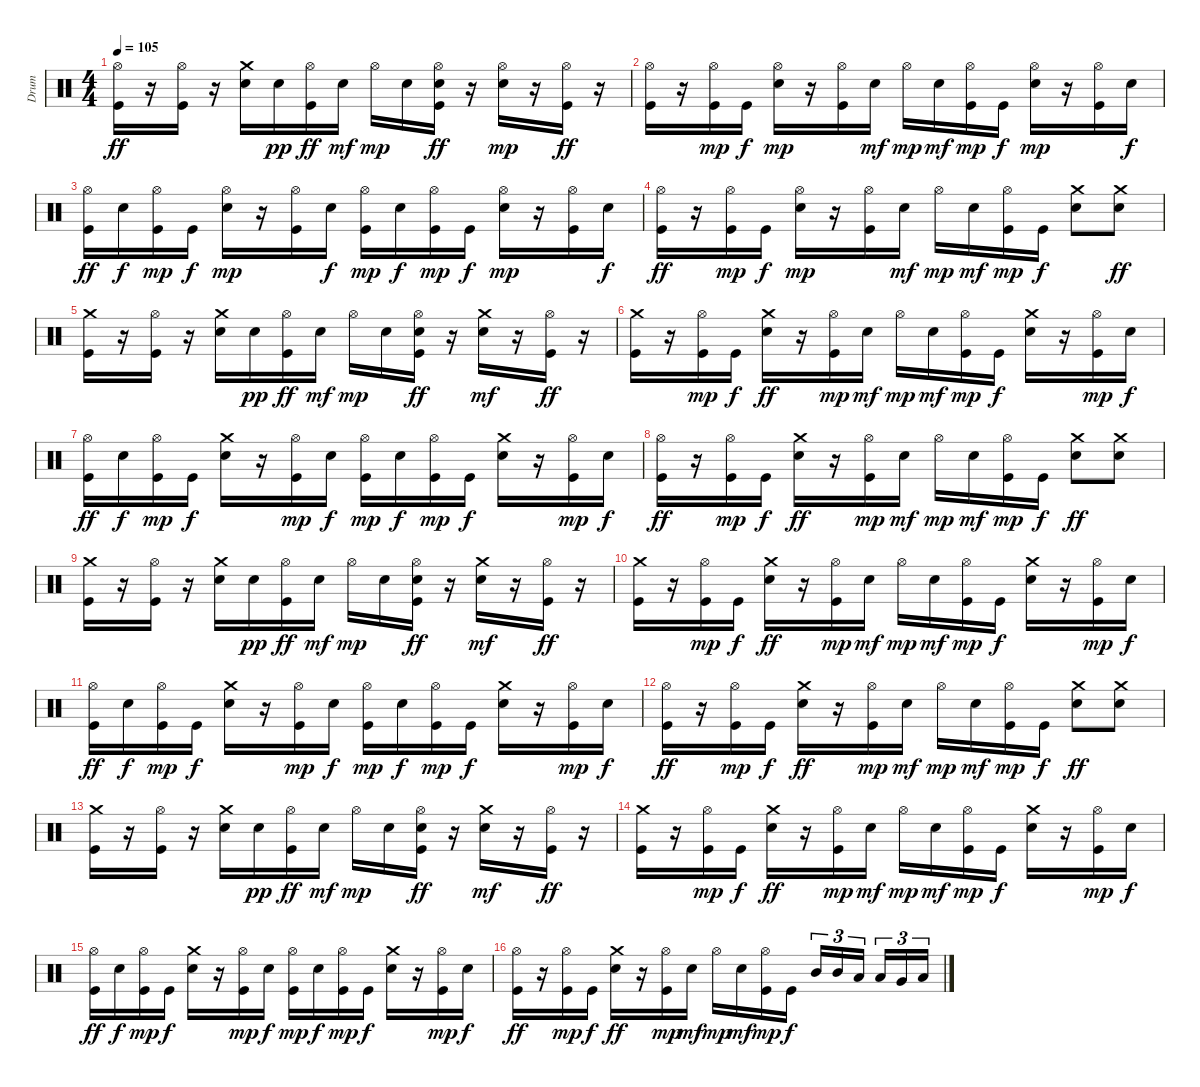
\track ("Drum" "Drum") {instrument percussion}
\staff {score}
\articulation defaults
\ts (4 4)
\tempo 105
\clef neutral
\ks c
("Hi-Hat (open)" "Kick (hit)").16{dy ff} r.16 ("Hi-Hat (open)" "Kick (hit)").16 r.16 ("Crash medium (hit)" "Electric Snare (hit)").16 "Electric Snare (hit)".16{dy pp} ("Hi-Hat (open)" "Kick (hit)").16{dy ff} "Electric Snare (hit)".16{dy mf} "Hi-Hat (open)".16{dy mp} "Electric Snare (hit)".16 ("Hi-Hat (open)" "Electric Snare (hit)" "Kick (hit)").16{dy ff} r.16 ("Hi-Hat (open)" "Electric Snare (hit)").16{dy mp} r.16 ("Hi-Hat (open)" "Kick (hit)").16{dy ff} r.16 |
("Hi-Hat (open)" "Kick (hit)").16 r.16 ("Hi-Hat (open)" "Kick (hit)").16{dy mp} "Kick (hit)".16{dy f} ("Hi-Hat (open)" "Electric Snare (hit)").16{dy mp} r.16 ("Hi-Hat (open)" "Kick (hit)").16 "Electric Snare (hit)".16{dy mf} "Hi-Hat (open)".16{dy mp} "Electric Snare (hit)".16{dy mf} ("Hi-Hat (open)" "Kick (hit)").16{dy mp} "Kick (hit)".16{dy f} ("Hi-Hat (open)" "Electric Snare (hit)").16{dy mp} r.16 ("Hi-Hat (open)" "Kick (hit)").16 "Electric Snare (hit)".16{dy f} |
("Hi-Hat (open)" "Kick (hit)").16{dy ff} "Electric Snare (hit)".16{dy f} ("Hi-Hat (open)" "Kick (hit)").16{dy mp} "Kick (hit)".16{dy f} ("Hi-Hat (open)" "Electric Snare (hit)").16{dy mp} r.16 ("Hi-Hat (open)" "Kick (hit)").16 "Electric Snare (hit)".16{dy f} ("Hi-Hat (open)" "Kick (hit)").16{dy mp} "Electric Snare (hit)".16{dy f} ("Hi-Hat (open)" "Kick (hit)").16{dy mp} "Kick (hit)".16{dy f} ("Hi-Hat (open)" "Electric Snare (hit)").16{dy mp} r.16 ("Hi-Hat (open)" "Kick (hit)").16 "Electric Snare (hit)".16{dy f} |
("Hi-Hat (open)" "Kick (hit)").16{dy ff} r.16 ("Hi-Hat (open)" "Kick (hit)").16{dy mp} "Kick (hit)".16{dy f} ("Hi-Hat (open)" "Electric Snare (hit)").16{dy mp} r.16 ("Hi-Hat (open)" "Kick (hit)").16 "Electric Snare (hit)".16{dy mf} "Hi-Hat (open)".16{dy mp} "Electric Snare (hit)".16{dy mf} ("Hi-Hat (open)" "Kick (hit)").16{dy mp} "Kick (hit)".16{dy f} ("Crash medium (hit)" "Electric Snare (hit)").8 ("Crash medium (hit)" "Electric Snare (hit)").8{dy ff} |
("Crash medium (hit)" "Kick (hit)").16 r.16 ("Hi-Hat (open)" "Kick (hit)").16 r.16 ("Crash medium (hit)" "Electric Snare (hit)").16 "Electric Snare (hit)".16{dy pp} ("Hi-Hat (open)" "Kick (hit)").16{dy ff} "Electric Snare (hit)".16{dy mf} "Hi-Hat (open)".16{dy mp} "Electric Snare (hit)".16 ("Hi-Hat (open)" "Electric Snare (hit)" "Kick (hit)").16{dy ff} r.16 ("Crash medium (hit)" "Electric Snare (hit)").16{dy mf} r.16 ("Hi-Hat (open)" "Kick (hit)").16{dy ff} r.16 |
("Crash medium (hit)" "Kick (hit)").16 r.16 ("Hi-Hat (open)" "Kick (hit)").16{dy mp} "Kick (hit)".16{dy f} ("Crash medium (hit)" "Electric Snare (hit)").16{dy ff} r.16 ("Hi-Hat (open)" "Kick (hit)").16{dy mp} "Electric Snare (hit)".16{dy mf} "Hi-Hat (open)".16{dy mp} "Electric Snare (hit)".16{dy mf} ("Hi-Hat (open)" "Kick (hit)").16{dy mp} "Kick (hit)".16{dy f} ("Crash medium (hit)" "Electric Snare (hit)").16 r.16 ("Hi-Hat (open)" "Kick (hit)").16{dy mp} "Electric Snare (hit)".16{dy f} |
("Hi-Hat (open)" "Kick (hit)").16{dy ff} "Electric Snare (hit)".16{dy f} ("Hi-Hat (open)" "Kick (hit)").16{dy mp} "Kick (hit)".16{dy f} ("Crash medium (hit)" "Electric Snare (hit)").16 r.16 ("Hi-Hat (open)" "Kick (hit)").16{dy mp} "Electric Snare (hit)".16{dy f} ("Hi-Hat (open)" "Kick (hit)").16{dy mp} "Electric Snare (hit)".16{dy f} ("Hi-Hat (open)" "Kick (hit)").16{dy mp} "Kick (hit)".16{dy f} ("Crash medium (hit)" "Electric Snare (hit)").16 r.16 ("Hi-Hat (open)" "Kick (hit)").16{dy mp} "Electric Snare (hit)".16{dy f} |
("Hi-Hat (open)" "Kick (hit)").16{dy ff} r.16 ("Hi-Hat (open)" "Kick (hit)").16{dy mp} "Kick (hit)".16{dy f} ("Crash medium (hit)" "Electric Snare (hit)").16{dy ff} r.16 ("Hi-Hat (open)" "Kick (hit)").16{dy mp} "Electric Snare (hit)".16{dy mf} "Hi-Hat (open)".16{dy mp} "Electric Snare (hit)".16{dy mf} ("Hi-Hat (open)" "Kick (hit)").16{dy mp} "Kick (hit)".16{dy f} ("Crash medium (hit)" "Electric Snare (hit)").8{dy ff} ("Crash medium (hit)" "Electric Snare (hit)").8 |
("Crash medium (hit)" "Kick (hit)").16 r.16 ("Hi-Hat (open)" "Kick (hit)").16 r.16 ("Crash medium (hit)" "Electric Snare (hit)").16 "Electric Snare (hit)".16{dy pp} ("Hi-Hat (open)" "Kick (hit)").16{dy ff} "Electric Snare (hit)".16{dy mf} "Hi-Hat (open)".16{dy mp} "Electric Snare (hit)".16 ("Hi-Hat (open)" "Electric Snare (hit)" "Kick (hit)").16{dy ff} r.16 ("Crash medium (hit)" "Electric Snare (hit)").16{dy mf} r.16 ("Hi-Hat (open)" "Kick (hit)").16{dy ff} r.16 |
("Crash medium (hit)" "Kick (hit)").16 r.16 ("Hi-Hat (open)" "Kick (hit)").16{dy mp} "Kick (hit)".16{dy f} ("Crash medium (hit)" "Electric Snare (hit)").16{dy ff} r.16 ("Hi-Hat (open)" "Kick (hit)").16{dy mp} "Electric Snare (hit)".16{dy mf} "Hi-Hat (open)".16{dy mp} "Electric Snare (hit)".16{dy mf} ("Hi-Hat (open)" "Kick (hit)").16{dy mp} "Kick (hit)".16{dy f} ("Crash medium (hit)" "Electric Snare (hit)").16 r.16 ("Hi-Hat (open)" "Kick (hit)").16{dy mp} "Electric Snare (hit)".16{dy f} |
("Hi-Hat (open)" "Kick (hit)").16{dy ff} "Electric Snare (hit)".16{dy f} ("Hi-Hat (open)" "Kick (hit)").16{dy mp} "Kick (hit)".16{dy f} ("Crash medium (hit)" "Electric Snare (hit)").16 r.16 ("Hi-Hat (open)" "Kick (hit)").16{dy mp} "Electric Snare (hit)".16{dy f} ("Hi-Hat (open)" "Kick (hit)").16{dy mp} "Electric Snare (hit)".16{dy f} ("Hi-Hat (open)" "Kick (hit)").16{dy mp} "Kick (hit)".16{dy f} ("Crash medium (hit)" "Electric Snare (hit)").16 r.16 ("Hi-Hat (open)" "Kick (hit)").16{dy mp} "Electric Snare (hit)".16{dy f} |
("Hi-Hat (open)" "Kick (hit)").16{dy ff} r.16 ("Hi-Hat (open)" "Kick (hit)").16{dy mp} "Kick (hit)".16{dy f} ("Crash medium (hit)" "Electric Snare (hit)").16{dy ff} r.16 ("Hi-Hat (open)" "Kick (hit)").16{dy mp} "Electric Snare (hit)".16{dy mf} "Hi-Hat (open)".16{dy mp} "Electric Snare (hit)".16{dy mf} ("Hi-Hat (open)" "Kick (hit)").16{dy mp} "Kick (hit)".16{dy f} ("Crash medium (hit)" "Electric Snare (hit)").8{dy ff} ("Crash medium (hit)" "Electric Snare (hit)").8 |
("Crash medium (hit)" "Kick (hit)").16 r.16 ("Hi-Hat (open)" "Kick (hit)").16 r.16 ("Crash medium (hit)" "Electric Snare (hit)").16 "Electric Snare (hit)".16{dy pp} ("Hi-Hat (open)" "Kick (hit)").16{dy ff} "Electric Snare (hit)".16{dy mf} "Hi-Hat (open)".16{dy mp} "Electric Snare (hit)".16 ("Hi-Hat (open)" "Electric Snare (hit)" "Kick (hit)").16{dy ff} r.16 ("Crash medium (hit)" "Electric Snare (hit)").16{dy mf} r.16 ("Hi-Hat (open)" "Kick (hit)").16{dy ff} r.16 |
("Crash medium (hit)" "Kick (hit)").16 r.16 ("Hi-Hat (open)" "Kick (hit)").16{dy mp} "Kick (hit)".16{dy f} ("Crash medium (hit)" "Electric Snare (hit)").16{dy ff} r.16 ("Hi-Hat (open)" "Kick (hit)").16{dy mp} "Electric Snare (hit)".16{dy mf} "Hi-Hat (open)".16{dy mp} "Electric Snare (hit)".16{dy mf} ("Hi-Hat (open)" "Kick (hit)").16{dy mp} "Kick (hit)".16{dy f} ("Crash medium (hit)" "Electric Snare (hit)").16 r.16 ("Hi-Hat (open)" "Kick (hit)").16{dy mp} "Electric Snare (hit)".16{dy f} |
("Hi-Hat (open)" "Kick (hit)").16{dy ff} "Electric Snare (hit)".16{dy f} ("Hi-Hat (open)" "Kick (hit)").16{dy mp} "Kick (hit)".16{dy f} ("Crash medium (hit)" "Electric Snare (hit)").16 r.16 ("Hi-Hat (open)" "Kick (hit)").16{dy mp} "Electric Snare (hit)".16{dy f} ("Hi-Hat (open)" "Kick (hit)").16{dy mp} "Electric Snare (hit)".16{dy f} ("Hi-Hat (open)" "Kick (hit)").16{dy mp} "Kick (hit)".16{dy f} ("Crash medium (hit)" "Electric Snare (hit)").16 r.16 ("Hi-Hat (open)" "Kick (hit)").16{dy mp} "Electric Snare (hit)".16{dy f} |
("Hi-Hat (open)" "Kick (hit)").16{dy ff} r.16 ("Hi-Hat (open)" "Kick (hit)").16{dy mp} "Kick (hit)".16{dy f} ("Crash medium (hit)" "Electric Snare (hit)").16{dy ff} r.16 ("Hi-Hat (open)" "Kick (hit)").16{dy mp} "Electric Snare (hit)".16{dy mf} "Hi-Hat (open)".16{dy mp} "Electric Snare (hit)".16{dy mf} ("Hi-Hat (open)" "Kick (hit)").16{dy mp} "Kick (hit)".16{dy f} "Mid Tom (hit)".16{tu (3 2)} "Mid Tom (hit)".16{tu (3 2)} "Low Tom (hit)".16{tu (3 2)} "Low Tom (hit)".16{tu (3 2)} "Very Low Tom (hit)".16{tu (3 2)} "Low Floor Tom (hit)".16{tu (3 2)}
